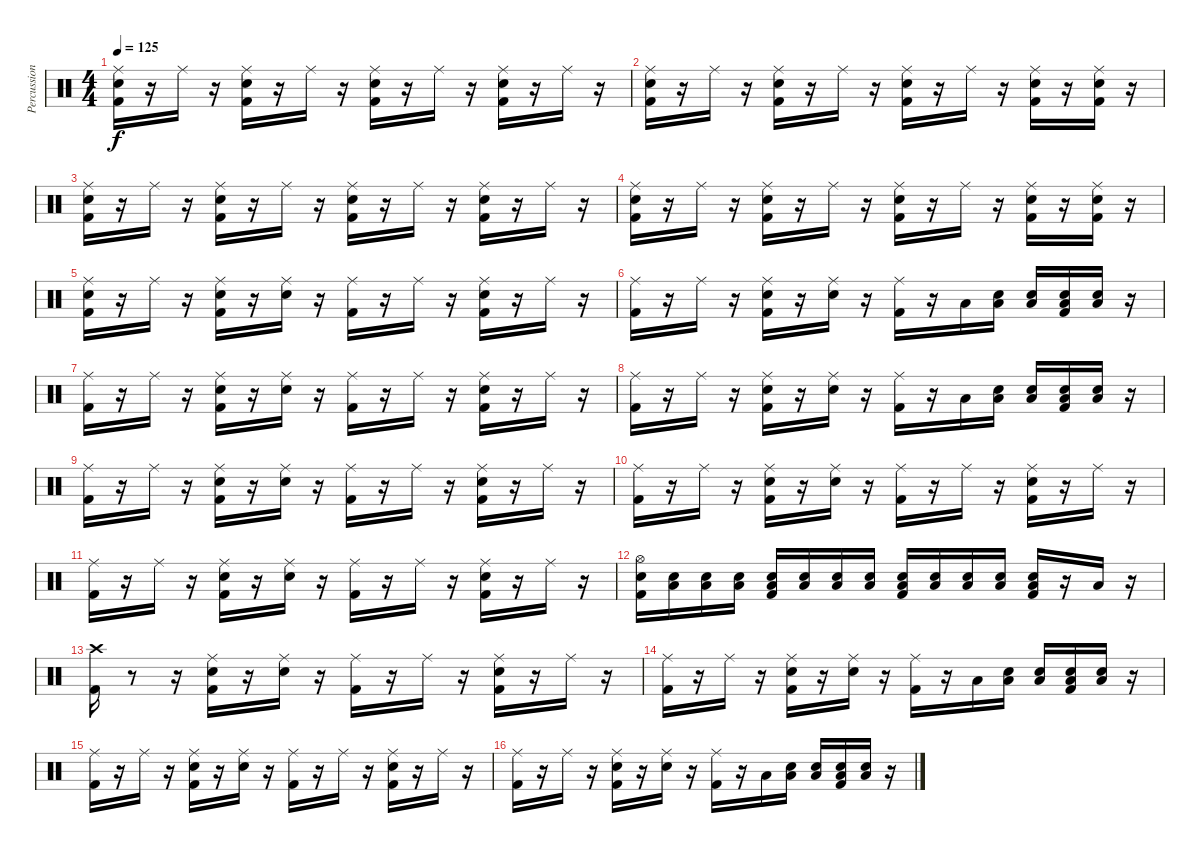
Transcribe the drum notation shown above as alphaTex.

\track ("Percussion" "Percussion") {instrument percussion}
\staff {score}
\articulation defaults
\ts (4 4)
\tempo 125
\clef neutral
\ks c
("Kick (hit) 2" "Snare (hit) 2" "Ride (middle)").16{dy f} r.16 "Ride (middle)".16 r.16 ("Kick (hit) 2" "Snare (hit) 2" "Ride (middle)").16 r.16 "Ride (middle)".16 r.16 ("Kick (hit) 2" "Snare (hit) 2" "Ride (middle)").16 r.16 "Ride (middle)".16 r.16 ("Kick (hit) 2" "Snare (hit) 2" "Ride (middle)").16 r.16 "Ride (middle)".16 r.16 |
("Kick (hit) 2" "Snare (hit) 2" "Ride (middle)").16 r.16 "Ride (middle)".16 r.16 ("Kick (hit) 2" "Snare (hit) 2" "Ride (middle)").16 r.16 "Ride (middle)".16 r.16 ("Kick (hit) 2" "Snare (hit) 2" "Ride (middle)").16 r.16 "Ride (middle)".16 r.16 ("Kick (hit) 2" "Snare (hit) 2" "Ride (middle)").16 r.16 ("Kick (hit) 2" "Snare (hit) 2" "Ride (middle)").16 r.16 |
("Kick (hit) 2" "Snare (hit) 2" "Ride (middle)").16 r.16 "Ride (middle)".16 r.16 ("Kick (hit) 2" "Snare (hit) 2" "Ride (middle)").16 r.16 "Ride (middle)".16 r.16 ("Kick (hit) 2" "Snare (hit) 2" "Ride (middle)").16 r.16 "Ride (middle)".16 r.16 ("Kick (hit) 2" "Snare (hit) 2" "Ride (middle)").16 r.16 "Ride (middle)".16 r.16 |
("Kick (hit) 2" "Snare (hit) 2" "Ride (middle)").16 r.16 "Ride (middle)".16 r.16 ("Kick (hit) 2" "Snare (hit) 2" "Ride (middle)").16 r.16 "Ride (middle)".16 r.16 ("Kick (hit) 2" "Snare (hit) 2" "Ride (middle)").16 r.16 "Ride (middle)".16 r.16 ("Kick (hit) 2" "Snare (hit) 2" "Ride (middle)").16 r.16 ("Kick (hit) 2" "Snare (hit) 2" "Ride (middle)").16 r.16 |
("Kick (hit) 2" "Snare (hit) 2" "Ride (middle)").16 r.16 "Ride (middle)".16 r.16 ("Kick (hit) 2" "Snare (hit) 2" "Ride (middle)").16 r.16 ("Snare (hit) 2" "Ride (middle)").16 r.16 ("Kick (hit) 2" "Ride (middle)").16 r.16 "Ride (middle)".16 r.16 ("Kick (hit) 2" "Snare (hit) 2" "Ride (middle)").16 r.16 "Ride (middle)".16 r.16 |
("Kick (hit) 2" "Ride (middle)").16 r.16 "Ride (middle)".16 r.16 ("Kick (hit) 2" "Snare (hit) 2" "Ride (middle)").16 r.16 ("Snare (hit) 2" "Ride (middle)").16 r.16 ("Kick (hit) 2" "Ride (middle)").16 r.16 "Low Floor Tom (hit)".16 ("Snare (hit)" "Low Floor Tom (hit)").16 ("Snare (hit)" "Low Floor Tom (hit)").16 ("Snare (hit)" "Kick (hit) 2" "Low Floor Tom (hit)").16 ("Snare (hit)" "Low Floor Tom (hit)").16 r.16 |
("Kick (hit) 2" "Ride (middle)").16 r.16 "Ride (middle)".16 r.16 ("Kick (hit) 2" "Snare (hit) 2" "Ride (middle)").16 r.16 ("Snare (hit) 2" "Ride (middle)").16 r.16 ("Kick (hit) 2" "Ride (middle)").16 r.16 "Ride (middle)".16 r.16 ("Kick (hit) 2" "Snare (hit) 2" "Ride (middle)").16 r.16 "Ride (middle)".16 r.16 |
("Kick (hit) 2" "Ride (middle)").16 r.16 "Ride (middle)".16 r.16 ("Kick (hit) 2" "Snare (hit) 2" "Ride (middle)").16 r.16 ("Snare (hit) 2" "Ride (middle)").16 r.16 ("Kick (hit) 2" "Ride (middle)").16 r.16 "Low Floor Tom (hit)".16 ("Snare (hit)" "Low Floor Tom (hit)").16 ("Snare (hit)" "Low Floor Tom (hit)").16 ("Snare (hit)" "Kick (hit) 2" "Low Floor Tom (hit)").16 ("Snare (hit)" "Low Floor Tom (hit)").16 r.16 |
("Kick (hit) 2" "Ride (middle)").16 r.16 "Ride (middle)".16 r.16 ("Kick (hit) 2" "Snare (hit) 2" "Ride (middle)").16 r.16 ("Snare (hit) 2" "Ride (middle)").16 r.16 ("Kick (hit) 2" "Ride (middle)").16 r.16 "Ride (middle)".16 r.16 ("Kick (hit) 2" "Snare (hit) 2" "Ride (middle)").16 r.16 "Ride (middle)".16 r.16 |
("Kick (hit) 2" "Ride (middle)").16 r.16 "Ride (middle)".16 r.16 ("Kick (hit) 2" "Snare (hit) 2" "Ride (middle)").16 r.16 ("Snare (hit) 2" "Ride (middle)").16 r.16 ("Kick (hit) 2" "Ride (middle)").16 r.16 "Ride (middle)".16 r.16 ("Kick (hit) 2" "Snare (hit) 2" "Ride (middle)").16 r.16 "Ride (middle)".16 r.16 |
("Kick (hit) 2" "Ride (middle)").16 r.16 "Ride (middle)".16 r.16 ("Kick (hit) 2" "Snare (hit) 2" "Ride (middle)").16 r.16 ("Snare (hit) 2" "Ride (middle)").16 r.16 ("Kick (hit) 2" "Ride (middle)").16 r.16 "Ride (middle)".16 r.16 ("Kick (hit) 2" "Snare (hit) 2" "Ride (middle)").16 r.16 "Ride (middle)".16 r.16 |
("Kick (hit) 2" "Snare (hit) 2" "Hi-Hat (open)").16 ("Snare (hit)" "Low Floor Tom (hit)").16 ("Snare (hit)" "Low Floor Tom (hit)").16 ("Snare (hit)" "Low Floor Tom (hit)").16 ("Snare (hit)" "Kick (hit) 2" "Low Floor Tom (hit)").16 ("Snare (hit)" "Low Floor Tom (hit)").16 ("Snare (hit)" "Low Floor Tom (hit)").16 ("Snare (hit)" "Low Floor Tom (hit)").16 ("Snare (hit)" "Kick (hit) 2" "Low Floor Tom (hit)").16 ("Snare (hit)" "Low Floor Tom (hit)").16 ("Snare (hit)" "Low Floor Tom (hit)").16 ("Snare (hit)" "Low Floor Tom (hit)").16 ("Snare (hit)" "Kick (hit) 2" "Low Floor Tom (hit)").16 r.16 "Low Floor Tom (hit)".16 r.16 |
("Kick (hit) 2" "Crash high (hit)").16 r.8 r.16 ("Kick (hit) 2" "Snare (hit) 2" "Ride (middle)").16 r.16 ("Snare (hit) 2" "Ride (middle)").16 r.16 ("Kick (hit) 2" "Ride (middle)").16 r.16 "Ride (middle)".16 r.16 ("Kick (hit) 2" "Snare (hit) 2" "Ride (middle)").16 r.16 "Ride (middle)".16 r.16 |
("Kick (hit) 2" "Ride (middle)").16 r.16 "Ride (middle)".16 r.16 ("Kick (hit) 2" "Snare (hit) 2" "Ride (middle)").16 r.16 ("Snare (hit) 2" "Ride (middle)").16 r.16 ("Kick (hit) 2" "Ride (middle)").16 r.16 "Low Floor Tom (hit)".16 ("Snare (hit)" "Low Floor Tom (hit)").16 ("Snare (hit)" "Low Floor Tom (hit)").16 ("Snare (hit)" "Kick (hit) 2" "Low Floor Tom (hit)").16 ("Snare (hit)" "Low Floor Tom (hit)").16 r.16 |
("Kick (hit) 2" "Ride (middle)").16 r.16 "Ride (middle)".16 r.16 ("Kick (hit) 2" "Snare (hit) 2" "Ride (middle)").16 r.16 ("Snare (hit) 2" "Ride (middle)").16 r.16 ("Kick (hit) 2" "Ride (middle)").16 r.16 "Ride (middle)".16 r.16 ("Kick (hit) 2" "Snare (hit) 2" "Ride (middle)").16 r.16 "Ride (middle)".16 r.16 |
("Kick (hit) 2" "Ride (middle)").16 r.16 "Ride (middle)".16 r.16 ("Kick (hit) 2" "Snare (hit) 2" "Ride (middle)").16 r.16 ("Snare (hit) 2" "Ride (middle)").16 r.16 ("Kick (hit) 2" "Ride (middle)").16 r.16 "Low Floor Tom (hit)".16 ("Snare (hit)" "Low Floor Tom (hit)").16 ("Snare (hit)" "Low Floor Tom (hit)").16 ("Snare (hit)" "Kick (hit) 2" "Low Floor Tom (hit)").16 ("Snare (hit)" "Low Floor Tom (hit)").16 r.16
